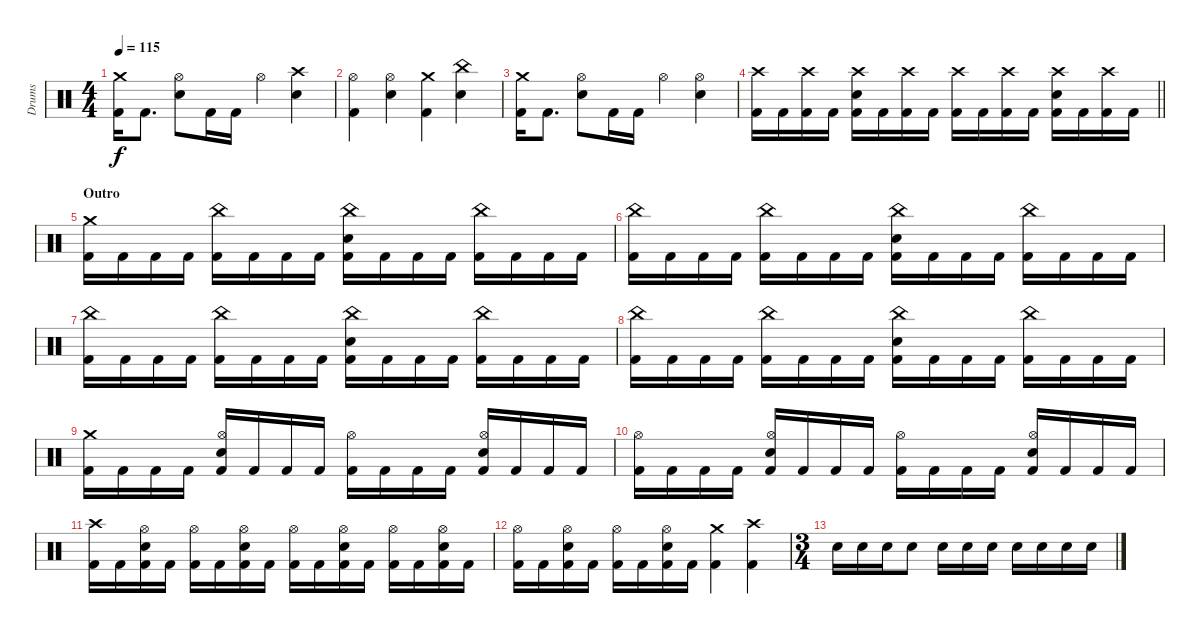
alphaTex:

\track ("Drums" "Drums") {instrument percussion}
\staff {score}
\articulation defaults
\ts (4 4)
\tempo 115
\clef neutral
\ks c
("Crash medium (hit)" "Kick (hit) 2").16{dy f} "Kick (hit) 2".8{d} ("Hi-Hat (open)" "Snare (hit) 2").8 "Kick (hit) 2".16 "Kick (hit) 2".16 "Hi-Hat (open)".4 ("Crash high (hit)" "Snare (hit) 2").4 |
("Hi-Hat (open)" "Kick (hit) 2").4 ("Hi-Hat (open)" "Snare (hit) 2").4 ("Crash medium (hit)" "Kick (hit) 2").4 ("China (hit)" "Snare (hit) 2").4 |
("Crash medium (hit)" "Kick (hit) 2").16 "Kick (hit) 2".8{d} ("Hi-Hat (open)" "Snare (hit) 2").8 "Kick (hit) 2".16 "Kick (hit) 2".16 "Hi-Hat (open)".4 ("Hi-Hat (open)" "Snare (hit) 2").4 |
\barLineRight lightlight
("Crash high (hit)" "Kick (hit) 2").16 "Kick (hit) 2".16 ("Crash high (hit)" "Kick (hit) 2").16 "Kick (hit) 2".16 ("Crash high (hit)" "Snare (hit) 2" "Kick (hit) 2").16 "Kick (hit) 2".16 ("Crash high (hit)" "Kick (hit) 2").16 "Kick (hit) 2".16 ("Crash high (hit)" "Kick (hit) 2").16 "Kick (hit) 2".16 ("Crash high (hit)" "Kick (hit) 2").16 "Kick (hit) 2".16 ("Crash high (hit)" "Snare (hit) 2" "Kick (hit) 2").16 "Kick (hit) 2".16 ("Crash high (hit)" "Kick (hit) 2").16 "Kick (hit) 2".16 |
\section ("" "Outro")
("Crash medium (hit)" "Kick (hit) 2").16 "Kick (hit) 2".16 "Kick (hit) 2".16 "Kick (hit) 2".16 ("China (hit)" "Kick (hit) 2").16 "Kick (hit) 2".16 "Kick (hit) 2".16 "Kick (hit) 2".16 ("China (hit)" "Snare (hit) 2" "Kick (hit) 2").16 "Kick (hit) 2".16 "Kick (hit) 2".16 "Kick (hit) 2".16 ("China (hit)" "Kick (hit) 2").16 "Kick (hit) 2".16 "Kick (hit) 2".16 "Kick (hit) 2".16 |
("China (hit)" "Kick (hit) 2").16 "Kick (hit) 2".16 "Kick (hit) 2".16 "Kick (hit) 2".16 ("China (hit)" "Kick (hit) 2").16 "Kick (hit) 2".16 "Kick (hit) 2".16 "Kick (hit) 2".16 ("China (hit)" "Snare (hit) 2" "Kick (hit) 2").16 "Kick (hit) 2".16 "Kick (hit) 2".16 "Kick (hit) 2".16 ("China (hit)" "Kick (hit) 2").16 "Kick (hit) 2".16 "Kick (hit) 2".16 "Kick (hit) 2".16 |
("China (hit)" "Kick (hit) 2").16 "Kick (hit) 2".16 "Kick (hit) 2".16 "Kick (hit) 2".16 ("China (hit)" "Kick (hit) 2").16 "Kick (hit) 2".16 "Kick (hit) 2".16 "Kick (hit) 2".16 ("China (hit)" "Snare (hit) 2" "Kick (hit) 2").16 "Kick (hit) 2".16 "Kick (hit) 2".16 "Kick (hit) 2".16 ("China (hit)" "Kick (hit) 2").16 "Kick (hit) 2".16 "Kick (hit) 2".16 "Kick (hit) 2".16 |
("China (hit)" "Kick (hit) 2").16 "Kick (hit) 2".16 "Kick (hit) 2".16 "Kick (hit) 2".16 ("China (hit)" "Kick (hit) 2").16 "Kick (hit) 2".16 "Kick (hit) 2".16 "Kick (hit) 2".16 ("China (hit)" "Snare (hit) 2" "Kick (hit) 2").16 "Kick (hit) 2".16 "Kick (hit) 2".16 "Kick (hit) 2".16 ("China (hit)" "Kick (hit) 2").16 "Kick (hit) 2".16 "Kick (hit) 2".16 "Kick (hit) 2".16 |
("Crash medium (hit)" "Kick (hit) 2").16 "Kick (hit) 2".16 "Kick (hit) 2".16 "Kick (hit) 2".16 ("Hi-Hat (open)" "Snare (hit) 2" "Kick (hit) 2").16 "Kick (hit) 2".16 "Kick (hit) 2".16 "Kick (hit) 2".16 ("Hi-Hat (open)" "Kick (hit) 2").16 "Kick (hit) 2".16 "Kick (hit) 2".16 "Kick (hit) 2".16 ("Hi-Hat (open)" "Snare (hit) 2" "Kick (hit) 2").16 "Kick (hit) 2".16 "Kick (hit) 2".16 "Kick (hit) 2".16 |
("Hi-Hat (open)" "Kick (hit) 2").16 "Kick (hit) 2".16 "Kick (hit) 2".16 "Kick (hit) 2".16 ("Hi-Hat (open)" "Snare (hit) 2" "Kick (hit) 2").16 "Kick (hit) 2".16 "Kick (hit) 2".16 "Kick (hit) 2".16 ("Hi-Hat (open)" "Kick (hit) 2").16 "Kick (hit) 2".16 "Kick (hit) 2".16 "Kick (hit) 2".16 ("Hi-Hat (open)" "Snare (hit) 2" "Kick (hit) 2").16 "Kick (hit) 2".16 "Kick (hit) 2".16 "Kick (hit) 2".16 |
("Crash high (hit)" "Kick (hit) 2").16 "Kick (hit) 2".16 ("Hi-Hat (open)" "Snare (hit) 2" "Kick (hit) 2").16 "Kick (hit) 2".16 ("Hi-Hat (open)" "Kick (hit) 2").16 "Kick (hit) 2".16 ("Hi-Hat (open)" "Snare (hit) 2" "Kick (hit) 2").16 "Kick (hit) 2".16 ("Hi-Hat (open)" "Kick (hit) 2").16 "Kick (hit) 2".16 ("Hi-Hat (open)" "Snare (hit) 2" "Kick (hit) 2").16 "Kick (hit) 2".16 ("Hi-Hat (open)" "Kick (hit) 2").16 "Kick (hit) 2".16 ("Hi-Hat (open)" "Snare (hit) 2" "Kick (hit) 2").16 "Kick (hit) 2".16 |
("Hi-Hat (open)" "Kick (hit) 2").16 "Kick (hit) 2".16 ("Hi-Hat (open)" "Snare (hit) 2" "Kick (hit) 2").16 "Kick (hit) 2".16 ("Hi-Hat (open)" "Kick (hit) 2").16 "Kick (hit) 2".16 ("Hi-Hat (open)" "Snare (hit) 2" "Kick (hit) 2").16 "Kick (hit) 2".16 ("Crash medium (hit)" "Kick (hit) 2").4 ("Crash high (hit)" "Kick (hit) 2").4 |
\ts (3 4)
"Snare (hit) 2".16 "Snare (hit) 2".16 "Snare (hit) 2".16 "Snare (hit) 2".8 "Snare (hit) 2".16 "Snare (hit) 2".16 "Snare (hit) 2".16 "Snare (hit) 2".16 "Snare (hit) 2".16 "Snare (hit) 2".16 "Snare (hit) 2".16
